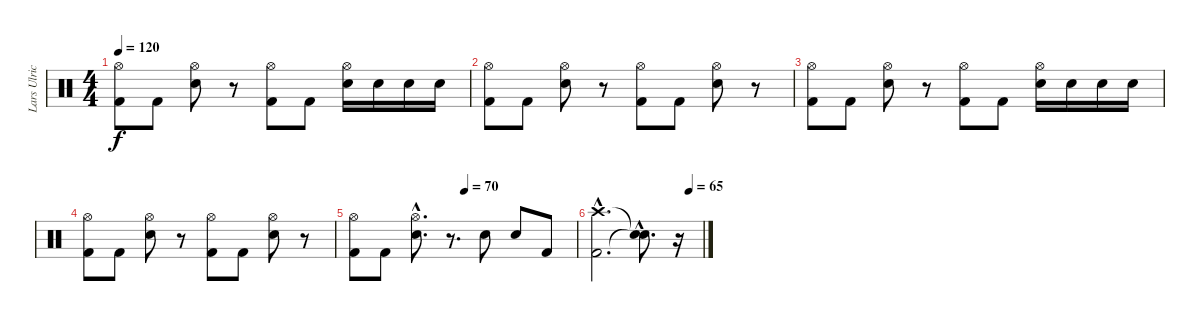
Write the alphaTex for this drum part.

\track ("Lars Ulrich" "Lars Ulric") {instrument percussion}
\staff {score}
\articulation defaults
\ts (4 4)
\tempo 120
\clef neutral
\ks c
("Kick (hit) 2" "Hi-Hat (open)").8{dy f} "Kick (hit) 2".8 ("Snare (hit) 2" "Hi-Hat (open)").8 r.8 ("Kick (hit) 2" "Hi-Hat (open)").8 "Kick (hit) 2".8 ("Snare (hit) 2" "Hi-Hat (open)").16 "Snare (hit) 2".16 "Snare (hit) 2".16 "Snare (hit) 2".16 |
("Kick (hit) 2" "Hi-Hat (open)").8 "Kick (hit) 2".8 ("Snare (hit) 2" "Hi-Hat (open)").8 r.8 ("Kick (hit) 2" "Hi-Hat (open)").8 "Kick (hit) 2".8 ("Snare (hit) 2" "Hi-Hat (open)").8 r.8 |
("Kick (hit) 2" "Hi-Hat (open)").8 "Kick (hit) 2".8 ("Snare (hit) 2" "Hi-Hat (open)").8 r.8 ("Kick (hit) 2" "Hi-Hat (open)").8 "Kick (hit) 2".8 ("Snare (hit) 2" "Hi-Hat (open)").16 "Snare (hit) 2".16 "Snare (hit) 2".16 "Snare (hit) 2".16 |
("Kick (hit) 2" "Hi-Hat (open)").8 "Kick (hit) 2".8 ("Snare (hit) 2" "Hi-Hat (open)").8 r.8 ("Kick (hit) 2" "Hi-Hat (open)").8 "Kick (hit) 2".8 ("Snare (hit) 2" "Hi-Hat (open)").8 r.8 |
\tempo (70 0.5)
("Kick (hit) 2" "Hi-Hat (open)").8 "Kick (hit) 2".8 ("Snare (hit) 2"{hac} "Hi-Hat (open)"{hac}).8{d} r.8{d} "Snare (hit) 2".8 "Snare (hit) 2".8 "Kick (hit) 2".8 |
\tempo (65 0.875)
("Kick (hit) 2"{hac} "Crash high (hit)"{hac}).2{d} ("Snare (hit)"{hac t} "Snare (hit)"{hac t}).8{d} r.16
